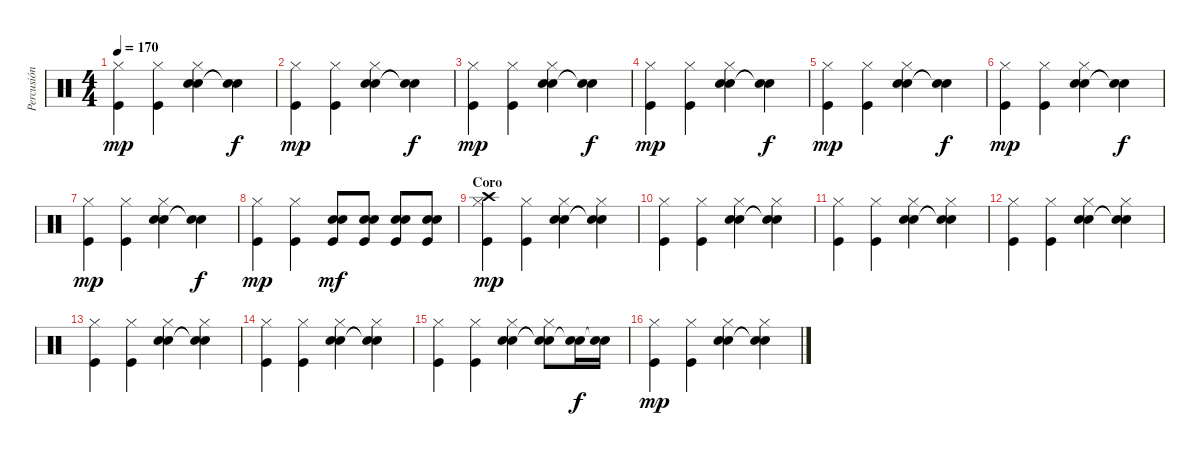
\track ("Percusión" "Percusión") {instrument percussion}
\staff {score}
\articulation defaults
\ts (4 4)
\tempo 170
\clef neutral
\ks c
("Kick (hit)" "Hi-Hat (closed)").4{dy mp} ("Kick (hit)" "Hi-Hat (closed)").4 ("Electric Snare (hit)" "Snare (hit) 2" "Hi-Hat (closed)").4 ("Snare (hit)"{t} "Snare (hit)"{t}).4{dy f} |
("Kick (hit)" "Hi-Hat (closed)").4{dy mp} ("Kick (hit)" "Hi-Hat (closed)").4 ("Electric Snare (hit)" "Snare (hit) 2" "Hi-Hat (closed)").4 ("Snare (hit)"{t} "Snare (hit)"{t}).4{dy f} |
("Kick (hit)" "Hi-Hat (closed)").4{dy mp} ("Kick (hit)" "Hi-Hat (closed)").4 ("Electric Snare (hit)" "Snare (hit) 2" "Hi-Hat (closed)").4 ("Snare (hit)"{t} "Snare (hit)"{t}).4{dy f} |
("Kick (hit)" "Hi-Hat (closed)").4{dy mp} ("Kick (hit)" "Hi-Hat (closed)").4 ("Electric Snare (hit)" "Snare (hit) 2" "Hi-Hat (closed)").4 ("Snare (hit)"{t} "Snare (hit)"{t}).4{dy f} |
("Kick (hit)" "Hi-Hat (closed)").4{dy mp} ("Kick (hit)" "Hi-Hat (closed)").4 ("Electric Snare (hit)" "Snare (hit) 2" "Hi-Hat (closed)").4 ("Snare (hit)"{t} "Snare (hit)"{t}).4{dy f} |
("Kick (hit)" "Hi-Hat (closed)").4{dy mp} ("Kick (hit)" "Hi-Hat (closed)").4 ("Electric Snare (hit)" "Snare (hit) 2" "Hi-Hat (closed)").4 ("Snare (hit)"{t} "Snare (hit)"{t}).4{dy f} |
("Kick (hit)" "Hi-Hat (closed)").4{dy mp} ("Kick (hit)" "Hi-Hat (closed)").4 ("Electric Snare (hit)" "Snare (hit) 2" "Hi-Hat (closed)").4 ("Snare (hit)"{t} "Snare (hit)"{t}).4{dy f} |
("Kick (hit)" "Hi-Hat (closed)").4{dy mp} ("Kick (hit)" "Hi-Hat (closed)").4 ("Kick (hit)" "Electric Snare (hit)" "Snare (hit) 2").8{dy mf} ("Kick (hit)" "Electric Snare (hit)" "Snare (hit) 2").8 ("Kick (hit)" "Electric Snare (hit)" "Snare (hit) 2").8 ("Kick (hit)" "Electric Snare (hit)" "Snare (hit) 2").8 |
\section ("" "Coro")
("Kick (hit)" "Crash high (hit)" "Hi-Hat (closed)").4{dy mp} ("Kick (hit)" "Hi-Hat (closed)").4 ("Electric Snare (hit)" "Snare (hit) 2" "Hi-Hat (closed)").4 ("Snare (hit)"{t} "Snare (hit)"{t} "Hi-Hat (closed)").4 |
("Kick (hit)" "Hi-Hat (closed)").4 ("Kick (hit)" "Hi-Hat (closed)").4 ("Electric Snare (hit)" "Snare (hit) 2" "Hi-Hat (closed)").4 ("Snare (hit)"{t} "Snare (hit)"{t} "Hi-Hat (closed)").4 |
("Kick (hit)" "Hi-Hat (closed)").4 ("Kick (hit)" "Hi-Hat (closed)").4 ("Electric Snare (hit)" "Snare (hit) 2" "Hi-Hat (closed)").4 ("Snare (hit)"{t} "Snare (hit)"{t} "Hi-Hat (closed)").4 |
("Kick (hit)" "Hi-Hat (closed)").4 ("Kick (hit)" "Hi-Hat (closed)").4 ("Electric Snare (hit)" "Snare (hit) 2" "Hi-Hat (closed)").4 ("Snare (hit)"{t} "Snare (hit)"{t} "Hi-Hat (closed)").4 |
("Kick (hit)" "Hi-Hat (closed)").4 ("Kick (hit)" "Hi-Hat (closed)").4 ("Electric Snare (hit)" "Snare (hit) 2" "Hi-Hat (closed)").4 ("Snare (hit)"{t} "Snare (hit)"{t} "Hi-Hat (closed)").4 |
("Kick (hit)" "Hi-Hat (closed)").4 ("Kick (hit)" "Hi-Hat (closed)").4 ("Electric Snare (hit)" "Snare (hit) 2" "Hi-Hat (closed)").4 ("Snare (hit)"{t} "Snare (hit)"{t} "Hi-Hat (closed)").4 |
("Kick (hit)" "Hi-Hat (closed)").4 ("Kick (hit)" "Hi-Hat (closed)").4 ("Electric Snare (hit)" "Snare (hit) 2" "Hi-Hat (closed)").4 ("Snare (hit)"{t} "Snare (hit)"{t} "Hi-Hat (closed)").8 ("Electric Snare (hit)" "Snare (hit)"{t}).16{dy f} ("Electric Snare (hit)" "Snare (hit)"{t}).16 |
("Kick (hit)" "Hi-Hat (closed)").4{dy mp} ("Kick (hit)" "Hi-Hat (closed)").4 ("Electric Snare (hit)" "Snare (hit) 2" "Hi-Hat (closed)").4 ("Snare (hit)"{t} "Snare (hit)"{t} "Hi-Hat (closed)").4
